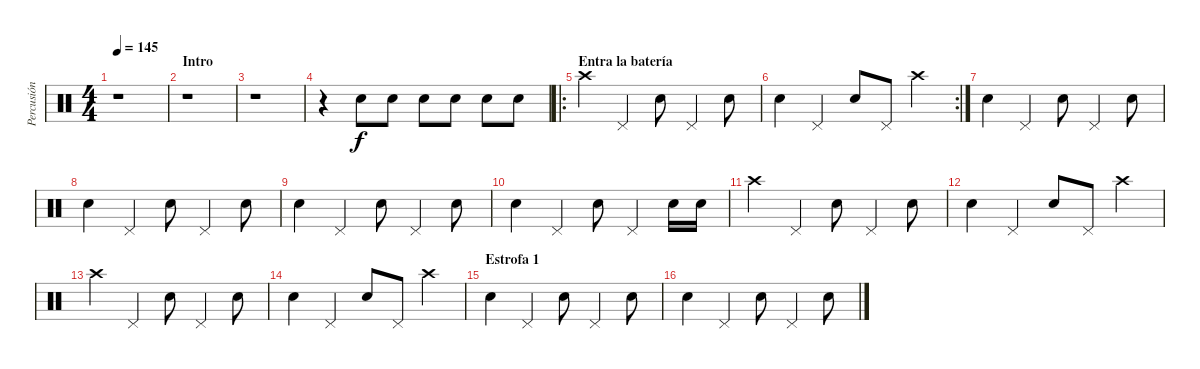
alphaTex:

\track ("Percusión" "Percusión") {instrument percussion}
\staff {score}
\articulation defaults
\ts (4 4)
\tempo 145
\clef neutral
\ks c
r.1{dy f} |
\section ("" "Intro")
r.1 |
r.1 |
r.4 "Electric Snare (hit)".8 "Electric Snare (hit)".8 "Electric Snare (hit)".8 "Electric Snare (hit)".8 "Electric Snare (hit)".8 "Electric Snare (hit)".8 |
\ro
\section ("" "Entra la batería")
"Crash high (hit)".4 "Pedal Hi-Hat (hit)".4 "Electric Snare (hit)".8 "Pedal Hi-Hat (hit)".4 "Electric Snare (hit)".8 |
\rc 2 "Electric Snare (hit)".4 "Pedal Hi-Hat (hit)".4 "Electric Snare (hit)".8 "Pedal Hi-Hat (hit)".8 "Crash high (hit)".4
|
"Electric Snare (hit)".4 "Pedal Hi-Hat (hit)".4 "Electric Snare (hit)".8 "Pedal Hi-Hat (hit)".4 "Electric Snare (hit)".8 |
"Electric Snare (hit)".4 "Pedal Hi-Hat (hit)".4 "Electric Snare (hit)".8 "Pedal Hi-Hat (hit)".4 "Electric Snare (hit)".8 |
"Electric Snare (hit)".4 "Pedal Hi-Hat (hit)".4 "Electric Snare (hit)".8 "Pedal Hi-Hat (hit)".4 "Electric Snare (hit)".8 |
"Electric Snare (hit)".4 "Pedal Hi-Hat (hit)".4 "Electric Snare (hit)".8 "Pedal Hi-Hat (hit)".4 "Electric Snare (hit)".16 "Electric Snare (hit)".16 |
"Crash high (hit)".4 "Pedal Hi-Hat (hit)".4 "Electric Snare (hit)".8 "Pedal Hi-Hat (hit)".4 "Electric Snare (hit)".8 |
"Electric Snare (hit)".4 "Pedal Hi-Hat (hit)".4 "Electric Snare (hit)".8 "Pedal Hi-Hat (hit)".8 "Crash high (hit)".4 |
"Crash high (hit)".4 "Pedal Hi-Hat (hit)".4 "Electric Snare (hit)".8 "Pedal Hi-Hat (hit)".4 "Electric Snare (hit)".8 |
"Electric Snare (hit)".4 "Pedal Hi-Hat (hit)".4 "Electric Snare (hit)".8 "Pedal Hi-Hat (hit)".8 "Crash high (hit)".4 |
\section ("" "Estrofa 1")
"Electric Snare (hit)".4 "Pedal Hi-Hat (hit)".4 "Electric Snare (hit)".8 "Pedal Hi-Hat (hit)".4 "Electric Snare (hit)".8 |
"Electric Snare (hit)".4 "Pedal Hi-Hat (hit)".4 "Electric Snare (hit)".8 "Pedal Hi-Hat (hit)".4 "Electric Snare (hit)".8
